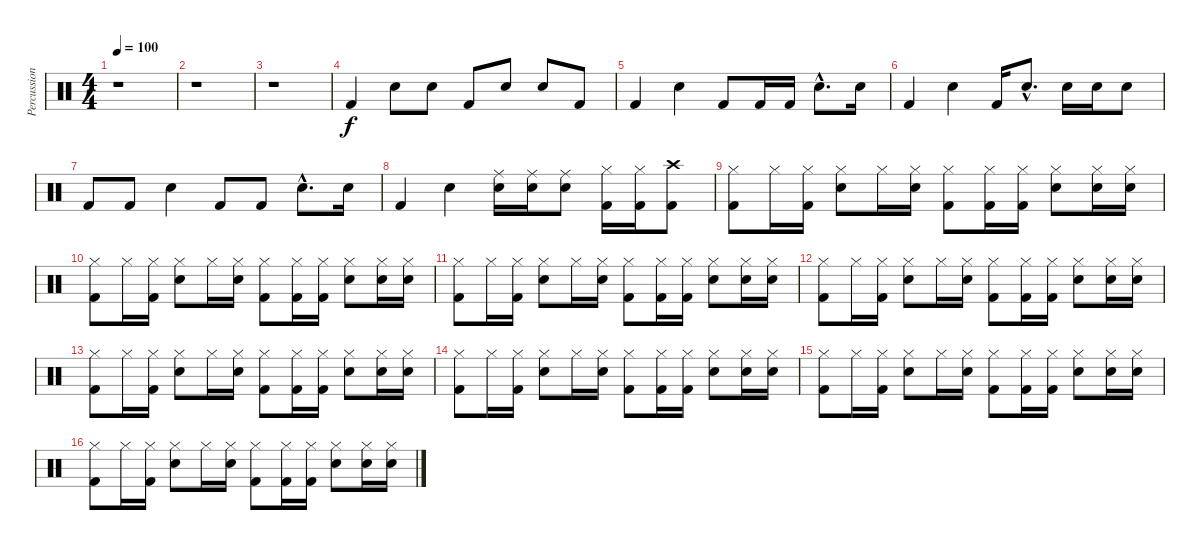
\track ("Percussion - Drums" "Percussion") {instrument percussion}
\staff {score}
\articulation defaults
\ts (4 4)
\tempo 100
\clef neutral
\ks c
r.1{dy f} |
r.1 |
r.1 |
"Kick (hit) 2".4 "Snare (hit) 2".8 "Snare (hit) 2".8 "Kick (hit) 2".8 "Snare (hit) 2".8 "Snare (hit) 2".8 "Kick (hit) 2".8 |
"Kick (hit) 2".4 "Snare (hit) 2".4 "Kick (hit) 2".8 "Kick (hit) 2".16 "Kick (hit) 2".16 "Snare (hit) 2"{hac}.8{d} "Snare (hit) 2".16 |
"Kick (hit) 2".4 "Snare (hit) 2".4 "Kick (hit) 2".16 "Snare (hit) 2"{hac}.8{d} "Snare (hit) 2".16 "Snare (hit) 2".16 "Snare (hit) 2".8 |
"Kick (hit) 2".8 "Kick (hit) 2".8 "Snare (hit) 2".4 "Kick (hit) 2".8 "Kick (hit) 2".8 "Snare (hit) 2"{hac}.8{d} "Snare (hit) 2".16 |
"Kick (hit) 2".4 "Snare (hit) 2".4 ("Ride (middle)" "Snare (hit) 2").16 ("Ride (middle)" "Snare (hit) 2").16 ("Ride (middle)" "Snare (hit) 2").8 ("Hi-Hat (closed)" "Kick (hit) 2").16 ("Hi-Hat (closed)" "Kick (hit) 2").16 ("Crash high (hit)" "Kick (hit) 2").8 |
("Hi-Hat (closed)" "Kick (hit) 2").8 "Hi-Hat (closed)".16 ("Hi-Hat (closed)" "Kick (hit) 2").16 ("Hi-Hat (closed)" "Snare (hit) 2").8 "Hi-Hat (closed)".16 ("Hi-Hat (closed)" "Snare (hit) 2").16 ("Hi-Hat (closed)" "Kick (hit) 2").8 ("Hi-Hat (closed)" "Kick (hit) 2").16 ("Hi-Hat (closed)" "Kick (hit) 2").16 ("Hi-Hat (closed)" "Snare (hit) 2").8 ("Hi-Hat (closed)" "Snare (hit) 2").16 ("Hi-Hat (closed)" "Snare (hit) 2").16 |
("Hi-Hat (closed)" "Kick (hit) 2").8 "Hi-Hat (closed)".16 ("Hi-Hat (closed)" "Kick (hit) 2").16 ("Hi-Hat (closed)" "Snare (hit) 2").8 "Hi-Hat (closed)".16 ("Hi-Hat (closed)" "Snare (hit) 2").16 ("Hi-Hat (closed)" "Kick (hit) 2").8 ("Hi-Hat (closed)" "Kick (hit) 2").16 ("Hi-Hat (closed)" "Kick (hit) 2").16 ("Hi-Hat (closed)" "Snare (hit) 2").8 ("Hi-Hat (closed)" "Snare (hit) 2").16 ("Hi-Hat (closed)" "Snare (hit) 2").16 |
("Hi-Hat (closed)" "Kick (hit) 2").8 "Hi-Hat (closed)".16 ("Hi-Hat (closed)" "Kick (hit) 2").16 ("Hi-Hat (closed)" "Snare (hit) 2").8 "Hi-Hat (closed)".16 ("Hi-Hat (closed)" "Snare (hit) 2").16 ("Hi-Hat (closed)" "Kick (hit) 2").8 ("Hi-Hat (closed)" "Kick (hit) 2").16 ("Hi-Hat (closed)" "Kick (hit) 2").16 ("Hi-Hat (closed)" "Snare (hit) 2").8 ("Hi-Hat (closed)" "Snare (hit) 2").16 ("Hi-Hat (closed)" "Snare (hit) 2").16 |
("Hi-Hat (closed)" "Kick (hit) 2").8 "Hi-Hat (closed)".16 ("Hi-Hat (closed)" "Kick (hit) 2").16 ("Hi-Hat (closed)" "Snare (hit) 2").8 "Hi-Hat (closed)".16 ("Hi-Hat (closed)" "Snare (hit) 2").16 ("Hi-Hat (closed)" "Kick (hit) 2").8 ("Hi-Hat (closed)" "Kick (hit) 2").16 ("Hi-Hat (closed)" "Kick (hit) 2").16 ("Hi-Hat (closed)" "Snare (hit) 2").8 ("Hi-Hat (closed)" "Snare (hit) 2").16 ("Hi-Hat (closed)" "Snare (hit) 2").16 |
("Hi-Hat (closed)" "Kick (hit) 2").8 "Hi-Hat (closed)".16 ("Hi-Hat (closed)" "Kick (hit) 2").16 ("Hi-Hat (closed)" "Snare (hit) 2").8 "Hi-Hat (closed)".16 ("Hi-Hat (closed)" "Snare (hit) 2").16 ("Hi-Hat (closed)" "Kick (hit) 2").8 ("Hi-Hat (closed)" "Kick (hit) 2").16 ("Hi-Hat (closed)" "Kick (hit) 2").16 ("Hi-Hat (closed)" "Snare (hit) 2").8 ("Hi-Hat (closed)" "Snare (hit) 2").16 ("Hi-Hat (closed)" "Snare (hit) 2").16 |
("Hi-Hat (closed)" "Kick (hit) 2").8 "Hi-Hat (closed)".16 ("Hi-Hat (closed)" "Kick (hit) 2").16 ("Hi-Hat (closed)" "Snare (hit) 2").8 "Hi-Hat (closed)".16 ("Hi-Hat (closed)" "Snare (hit) 2").16 ("Hi-Hat (closed)" "Kick (hit) 2").8 ("Hi-Hat (closed)" "Kick (hit) 2").16 ("Hi-Hat (closed)" "Kick (hit) 2").16 ("Hi-Hat (closed)" "Snare (hit) 2").8 ("Hi-Hat (closed)" "Snare (hit) 2").16 ("Hi-Hat (closed)" "Snare (hit) 2").16 |
("Hi-Hat (closed)" "Kick (hit) 2").8 "Hi-Hat (closed)".16 ("Hi-Hat (closed)" "Kick (hit) 2").16 ("Hi-Hat (closed)" "Snare (hit) 2").8 "Hi-Hat (closed)".16 ("Hi-Hat (closed)" "Snare (hit) 2").16 ("Hi-Hat (closed)" "Kick (hit) 2").8 ("Hi-Hat (closed)" "Kick (hit) 2").16 ("Hi-Hat (closed)" "Kick (hit) 2").16 ("Hi-Hat (closed)" "Snare (hit) 2").8 ("Hi-Hat (closed)" "Snare (hit) 2").16 ("Hi-Hat (closed)" "Snare (hit) 2").16 |
("Hi-Hat (closed)" "Kick (hit) 2").8 "Hi-Hat (closed)".16 ("Hi-Hat (closed)" "Kick (hit) 2").16 ("Hi-Hat (closed)" "Snare (hit) 2").8 "Hi-Hat (closed)".16 ("Hi-Hat (closed)" "Snare (hit) 2").16 ("Hi-Hat (closed)" "Kick (hit) 2").8 ("Hi-Hat (closed)" "Kick (hit) 2").16 ("Hi-Hat (closed)" "Kick (hit) 2").16 ("Hi-Hat (closed)" "Snare (hit) 2").8 ("Hi-Hat (closed)" "Snare (hit) 2").16 ("Hi-Hat (closed)" "Snare (hit) 2").16
